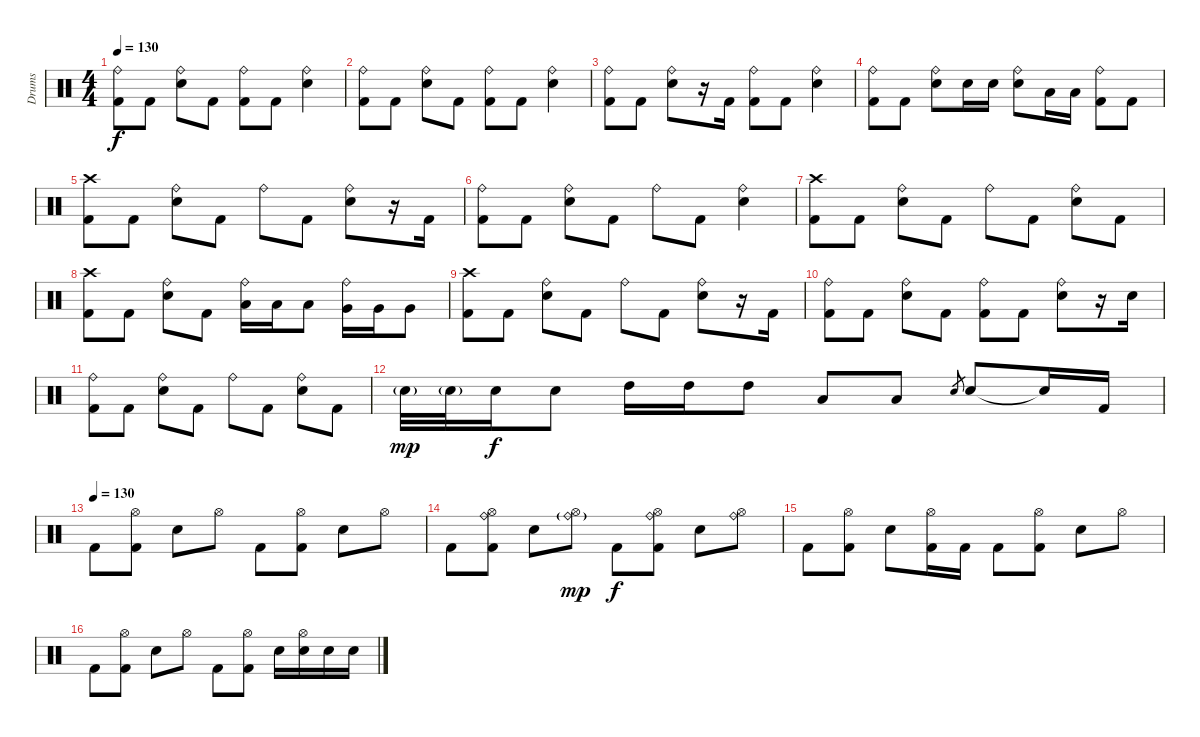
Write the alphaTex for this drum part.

\track ("Drums" "Drums") {instrument percussion}
\staff {score}
\articulation defaults
\ts (4 4)
\tempo 130
\clef neutral
\ks c
("Ride (bell)" "Kick (hit) 2").8{dy f} "Kick (hit) 2".8 ("Ride (bell)" "Electric Snare (hit)").8 "Kick (hit) 2".8 ("Ride (bell)" "Kick (hit) 2").8 "Kick (hit) 2".8 ("Ride (bell)" "Electric Snare (hit)").4 |
("Ride (bell)" "Kick (hit) 2").8 "Kick (hit) 2".8 ("Ride (bell)" "Electric Snare (hit)").8 "Kick (hit) 2".8 ("Ride (bell)" "Kick (hit) 2").8 "Kick (hit) 2".8 ("Ride (bell)" "Electric Snare (hit)").4 |
("Ride (bell)" "Kick (hit) 2").8 "Kick (hit) 2".8 ("Ride (bell)" "Electric Snare (hit)").8 r.16 "Kick (hit) 2".16 ("Ride (bell)" "Kick (hit) 2").8 "Kick (hit) 2".8 ("Ride (bell)" "Electric Snare (hit)").4 |
("Ride (bell)" "Kick (hit) 2").8 "Kick (hit) 2".8 ("Ride (bell)" "Electric Snare (hit)").8 "Electric Snare (hit)".16 "Electric Snare (hit)".16 ("Ride (bell)" "Electric Snare (hit)").8 "Low Tom (hit)".16 "Low Tom (hit)".16 ("Ride (bell)" "Kick (hit) 2").8 "Kick (hit) 2".8 |
("Crash high (hit)" "Kick (hit) 2").8 "Kick (hit) 2".8 ("Ride (bell)" "Electric Snare (hit)").8 "Kick (hit) 2".8 "Ride (bell)".8 "Kick (hit) 2".8 ("Ride (bell)" "Electric Snare (hit)").8 r.16 "Kick (hit) 2".16 |
("Ride (bell)" "Kick (hit) 2").8 "Kick (hit) 2".8 ("Ride (bell)" "Electric Snare (hit)").8 "Kick (hit) 2".8 "Ride (bell)".8 "Kick (hit) 2".8 ("Ride (bell)" "Electric Snare (hit)").4 |
("Crash high (hit)" "Kick (hit) 2").8 "Kick (hit) 2".8 ("Ride (bell)" "Electric Snare (hit)").8 "Kick (hit) 2".8 "Ride (bell)".8 "Kick (hit) 2".8 ("Ride (bell)" "Electric Snare (hit)").8 "Kick (hit) 2".8 |
("Crash high (hit)" "Kick (hit) 2").8 "Kick (hit) 2".8 ("Ride (bell)" "Electric Snare (hit)").8 "Kick (hit) 2".8 ("Ride (bell)" "Low Tom (hit)").16 "Low Tom (hit)".16 "Low Tom (hit)".8 ("Ride (bell)" "Very Low Tom (hit)").16 "Very Low Tom (hit)".16 "Very Low Tom (hit)".8 |
("Crash high (hit)" "Kick (hit) 2").8 "Kick (hit) 2".8 ("Ride (bell)" "Electric Snare (hit)").8 "Kick (hit) 2".8 "Ride (bell)".8 "Kick (hit) 2".8 ("Ride (bell)" "Electric Snare (hit)").8 r.16 "Kick (hit) 2".16 |
("Ride (bell)" "Kick (hit) 2").8 "Kick (hit) 2".8 ("Ride (bell)" "Electric Snare (hit)").8 "Kick (hit) 2".8 ("Ride (bell)" "Kick (hit) 2").8 "Kick (hit) 2".8 ("Ride (bell)" "Electric Snare (hit)").8 r.16 "Electric Snare (hit)".16 |
("Ride (bell)" "Kick (hit) 2").8 "Kick (hit) 2".8 ("Ride (bell)" "Electric Snare (hit)").8 "Kick (hit) 2".8 "Ride (bell)".8 "Kick (hit) 2".8 ("Ride (bell)" "Electric Snare (hit)").8 "Kick (hit) 2".8 |
"Electric Snare (hit)"{g}.32{dy mp} "Electric Snare (hit)"{g}.32 "Electric Snare (hit)".16{dy f} "Electric Snare (hit)".8 "High Tom (hit)".16 "High Tom (hit)".16 "High Tom (hit)".8 "Low Tom (hit)".8 "Low Tom (hit)".8 "Electric Snare (hit)".8{gr} "Electric Snare (hit)".8 "Snare (hit)"{t}.16 "Kick (hit) 2".16 |
\tempo (130)
"Kick (hit) 2".8 ("Hi-Hat (open)" "Kick (hit) 2").8 "Electric Snare (hit)".8 "Hi-Hat (open)".8 "Kick (hit) 2".8 ("Hi-Hat (open)" "Kick (hit) 2").8 "Electric Snare (hit)".8 "Hi-Hat (open)".8 |
"Kick (hit) 2".8 ("Hi-Hat (open)" "Ride (bell)" "Kick (hit) 2").8 "Electric Snare (hit)".8 ("Hi-Hat (open)" "Ride (bell)"{g}).8{dy mp} "Kick (hit) 2".8{dy f} ("Hi-Hat (open)" "Ride (bell)" "Kick (hit) 2").8 "Electric Snare (hit)".8 ("Hi-Hat (open)" "Ride (bell)").8 |
"Kick (hit) 2".8 ("Hi-Hat (open)" "Kick (hit) 2").8 "Electric Snare (hit)".8 ("Hi-Hat (open)" "Kick (hit) 2").16 "Kick (hit) 2".16 "Kick (hit) 2".8 ("Hi-Hat (open)" "Kick (hit) 2").8 "Electric Snare (hit)".8 "Hi-Hat (open)".8 |
"Kick (hit) 2".8 ("Hi-Hat (open)" "Kick (hit) 2").8 "Electric Snare (hit)".8 "Hi-Hat (open)".8 "Kick (hit) 2".8 ("Hi-Hat (open)" "Kick (hit) 2").8 "Electric Snare (hit)".16 ("Hi-Hat (open)" "Electric Snare (hit)").16 "Electric Snare (hit)".16 "Electric Snare (hit)".16
